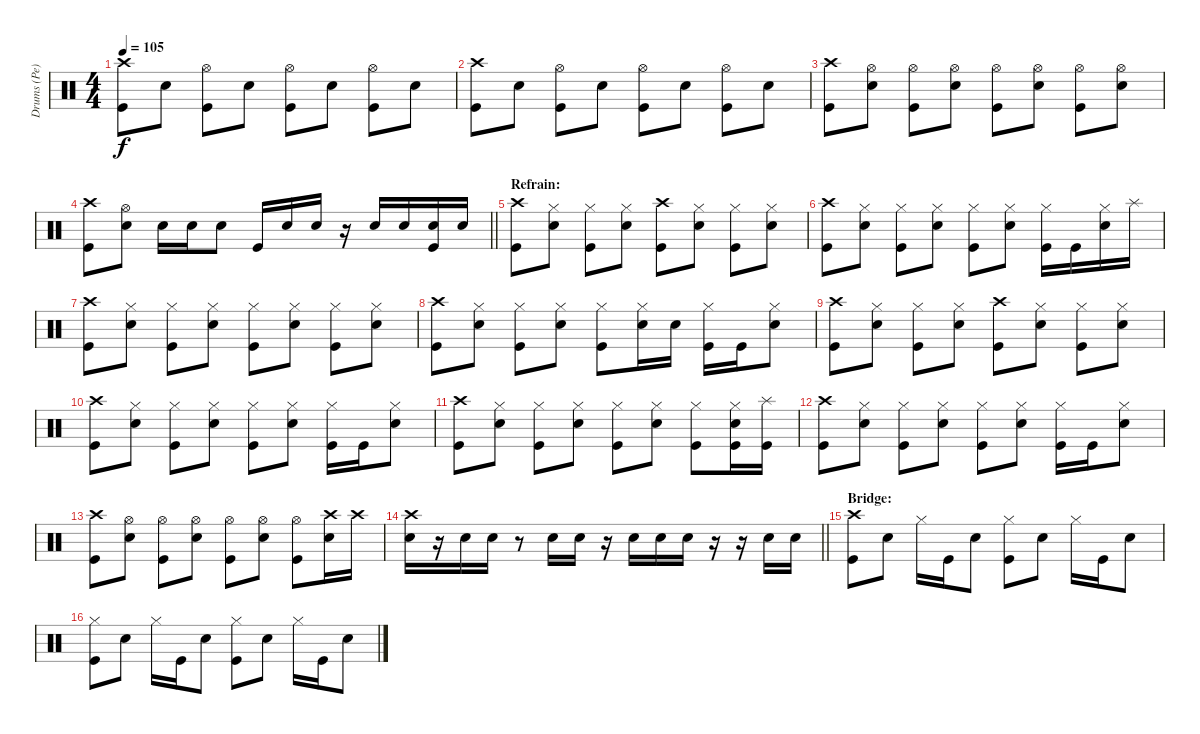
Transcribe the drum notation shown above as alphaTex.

\track ("Drums (Pe)" "Drums (Pe)") {instrument percussion}
\staff {score}
\articulation defaults
\ts (4 4)
\tempo 105
\clef neutral
\ks c
("Crash high (hit)" "Kick (hit)").8{dy f} "Snare (hit) 2".8 ("Hi-Hat (open)" "Kick (hit)").8 "Snare (hit) 2".8 ("Hi-Hat (open)" "Kick (hit)").8 "Snare (hit) 2".8 ("Hi-Hat (open)" "Kick (hit)").8 "Snare (hit) 2".8 |
("Crash high (hit)" "Kick (hit)").8 "Snare (hit) 2".8 ("Hi-Hat (open)" "Kick (hit)").8 "Snare (hit) 2".8 ("Hi-Hat (open)" "Kick (hit)").8 "Snare (hit) 2".8 ("Hi-Hat (open)" "Kick (hit)").8 "Snare (hit) 2".8 |
("Crash high (hit)" "Kick (hit)").8 ("Snare (hit) 2" "Hi-Hat (open)").8 ("Hi-Hat (open)" "Kick (hit)").8 ("Snare (hit) 2" "Hi-Hat (open)").8 ("Hi-Hat (open)" "Kick (hit)").8 ("Snare (hit) 2" "Hi-Hat (open)").8 ("Kick (hit)" "Hi-Hat (open)").8 ("Snare (hit) 2" "Hi-Hat (open)").8 |
\barLineRight lightlight
("Crash high (hit)" "Kick (hit)").8 ("Snare (hit) 2" "Hi-Hat (open)").8 "Snare (hit) 2".16 "Snare (hit) 2".16 "Snare (hit) 2".8 "Kick (hit)".16 "Snare (hit) 2".16 "Snare (hit) 2".16 r.16 "Snare (hit) 2".16 "Snare (hit) 2".16 ("Snare (hit) 2" "Kick (hit)").16 "Snare (hit) 2".16 |
\section ("" "Refrain:")
("Crash high (hit)" "Kick (hit)").8 ("Snare (hit) 2" "Hi-Hat (closed)").8 ("Hi-Hat (closed)" "Kick (hit)").8 ("Snare (hit) 2" "Hi-Hat (closed)").8 ("Crash high (hit)" "Kick (hit)").8 ("Snare (hit) 2" "Hi-Hat (closed)").8 ("Hi-Hat (closed)" "Kick (hit)").8 ("Snare (hit) 2" "Hi-Hat (closed)").8 |
("Crash high (hit)" "Kick (hit)").8 ("Snare (hit) 2" "Hi-Hat (closed)").8 ("Hi-Hat (closed)" "Kick (hit)").8 ("Snare (hit) 2" "Hi-Hat (closed)").8 ("Hi-Hat (closed)" "Kick (hit)").8 ("Snare (hit) 2" "Hi-Hat (closed)").8 ("Hi-Hat (closed)" "Kick (hit)").16 "Kick (hit)".16 ("Hi-Hat (closed)" "Snare (hit) 2").16 "Splash (hit)".16 |
("Crash high (hit)" "Kick (hit)").8 ("Snare (hit) 2" "Hi-Hat (closed)").8 ("Hi-Hat (closed)" "Kick (hit)").8 ("Snare (hit) 2" "Hi-Hat (closed)").8 ("Hi-Hat (closed)" "Kick (hit)").8 ("Snare (hit) 2" "Hi-Hat (closed)").8 ("Hi-Hat (closed)" "Kick (hit)").8 ("Snare (hit) 2" "Hi-Hat (closed)").8 |
("Crash high (hit)" "Kick (hit)").8 ("Snare (hit) 2" "Hi-Hat (closed)").8 ("Hi-Hat (closed)" "Kick (hit)").8 ("Snare (hit) 2" "Hi-Hat (closed)").8 ("Hi-Hat (closed)" "Kick (hit)").8 ("Snare (hit) 2" "Hi-Hat (closed)").16 "Snare (hit) 2".16 ("Hi-Hat (closed)" "Kick (hit)").16 "Kick (hit)".16 ("Snare (hit) 2" "Hi-Hat (closed)").8 |
("Crash high (hit)" "Kick (hit)").8 ("Snare (hit) 2" "Hi-Hat (closed)").8 ("Hi-Hat (closed)" "Kick (hit)").8 ("Snare (hit) 2" "Hi-Hat (closed)").8 ("Crash high (hit)" "Kick (hit)").8 ("Snare (hit) 2" "Hi-Hat (closed)").8 ("Hi-Hat (closed)" "Kick (hit)").8 ("Snare (hit) 2" "Hi-Hat (closed)").8 |
("Crash high (hit)" "Kick (hit)").8 ("Snare (hit) 2" "Hi-Hat (closed)").8 ("Hi-Hat (closed)" "Kick (hit)").8 ("Snare (hit) 2" "Hi-Hat (closed)").8 ("Hi-Hat (closed)" "Kick (hit)").8 ("Snare (hit) 2" "Hi-Hat (closed)").8 ("Hi-Hat (closed)" "Kick (hit)").16 "Kick (hit)".16 ("Snare (hit) 2" "Hi-Hat (closed)").8 |
("Crash high (hit)" "Kick (hit)").8 ("Snare (hit) 2" "Hi-Hat (closed)").8 ("Hi-Hat (closed)" "Kick (hit)").8 ("Snare (hit) 2" "Hi-Hat (closed)").8 ("Hi-Hat (closed)" "Kick (hit)").8 ("Snare (hit) 2" "Hi-Hat (closed)").8 ("Hi-Hat (closed)" "Kick (hit)").8 ("Hi-Hat (closed)" "Snare (hit) 2" "Kick (hit)").16 ("Splash (hit)" "Kick (hit)").16 |
("Crash high (hit)" "Kick (hit)").8 ("Snare (hit) 2" "Hi-Hat (closed)").8 ("Hi-Hat (closed)" "Kick (hit)").8 ("Snare (hit) 2" "Hi-Hat (closed)").8 ("Hi-Hat (closed)" "Kick (hit)").8 ("Snare (hit) 2" "Hi-Hat (closed)").8 ("Hi-Hat (closed)" "Kick (hit)").16 "Kick (hit)".16 ("Snare (hit) 2" "Hi-Hat (closed)").8 |
("Crash high (hit)" "Kick (hit)").8 ("Hi-Hat (open)" "Snare (hit) 2").8 ("Hi-Hat (open)" "Kick (hit)").8 ("Hi-Hat (open)" "Snare (hit) 2").8 ("Hi-Hat (open)" "Kick (hit)").8 ("Hi-Hat (open)" "Snare (hit) 2").8 ("Hi-Hat (open)" "Kick (hit)").8 ("Crash high (hit)" "Snare (hit) 2").16 "Crash high (hit)".16 |
\barLineRight lightlight
("Crash high (hit)" "Snare (hit) 2").16 r.16 "Snare (hit) 2".16 "Snare (hit) 2".16 r.8 "Snare (hit) 2".16 "Snare (hit) 2".16 r.16 "Snare (hit) 2".16 "Snare (hit) 2".16 "Snare (hit) 2".16 r.16 r.16 "Snare (hit) 2".16 "Snare (hit) 2".16 |
\section ("" "Bridge:")
("Crash high (hit)" "Kick (hit)").8 "Snare (hit) 2".8 "Hi-Hat (closed)".16 "Kick (hit)".16 "Snare (hit) 2".8 ("Hi-Hat (closed)" "Kick (hit)").8 "Snare (hit) 2".8 "Hi-Hat (closed)".16 "Kick (hit)".16 "Snare (hit) 2".8 |
("Hi-Hat (closed)" "Kick (hit)").8 "Snare (hit) 2".8 "Hi-Hat (closed)".16 "Kick (hit)".16 "Snare (hit) 2".8 ("Hi-Hat (closed)" "Kick (hit)").8 "Snare (hit) 2".8 "Hi-Hat (closed)".16 "Kick (hit)".16 "Snare (hit) 2".8
